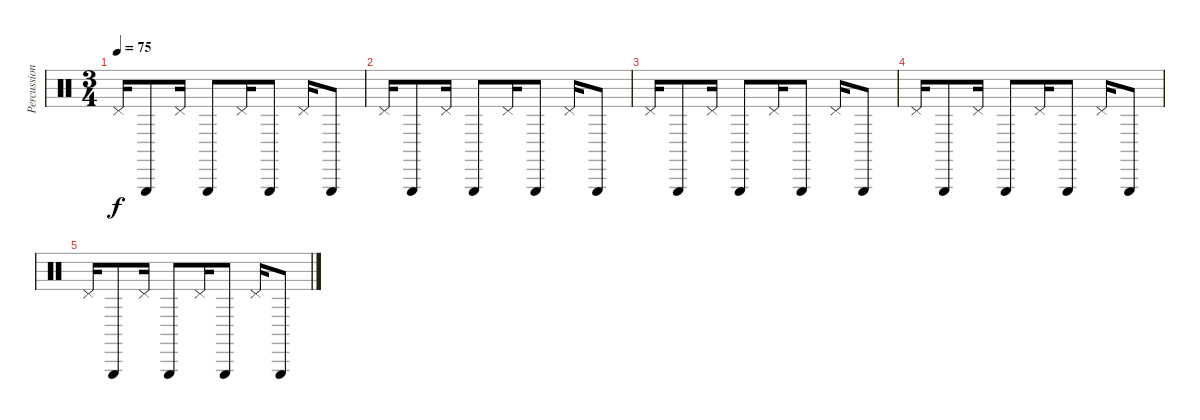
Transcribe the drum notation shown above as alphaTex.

\track ("Percussions" "Percussion") {instrument percussion}
\staff {score}
\articulation defaults
\ts (3 4)
\tempo 75
\clef neutral
\ks c "Pedal Hi-Hat (hit)".16{dy f} "Triangle (hit)".8 "Pedal Hi-Hat (hit)".16 "Triangle (hit)".8 "Pedal Hi-Hat (hit)".16 "Triangle (hit)".8 "Pedal Hi-Hat (hit)".16 "Triangle (hit)".8
|
"Pedal Hi-Hat (hit)".16 "Triangle (hit)".8 "Pedal Hi-Hat (hit)".16 "Triangle (hit)".8 "Pedal Hi-Hat (hit)".16 "Triangle (hit)".8 "Pedal Hi-Hat (hit)".16 "Triangle (hit)".8 |
"Pedal Hi-Hat (hit)".16 "Triangle (hit)".8 "Pedal Hi-Hat (hit)".16 "Triangle (hit)".8 "Pedal Hi-Hat (hit)".16 "Triangle (hit)".8 "Pedal Hi-Hat (hit)".16 "Triangle (hit)".8 |
"Pedal Hi-Hat (hit)".16 "Triangle (hit)".8 "Pedal Hi-Hat (hit)".16 "Triangle (hit)".8 "Pedal Hi-Hat (hit)".16 "Triangle (hit)".8 "Pedal Hi-Hat (hit)".16 "Triangle (hit)".8 |
"Pedal Hi-Hat (hit)".16 "Triangle (hit)".8 "Pedal Hi-Hat (hit)".16 "Triangle (hit)".8 "Pedal Hi-Hat (hit)".16 "Triangle (hit)".8 "Pedal Hi-Hat (hit)".16 "Triangle (hit)".8
